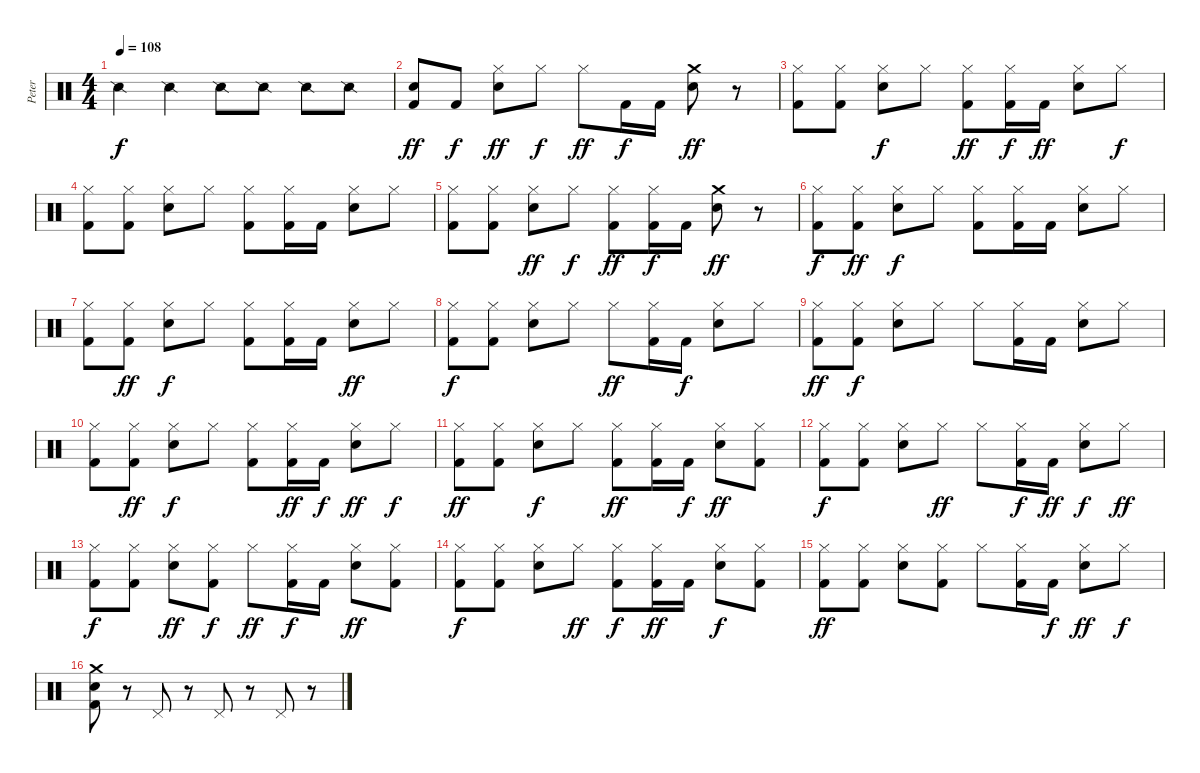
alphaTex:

\track ("Peter" "Peter") {instrument percussion}
\staff {score}
\articulation defaults
\ts (4 4)
\tempo 108
\clef neutral
\ks c "Snare (side stick) 2".4{dy f} "Snare (side stick) 2".4 "Snare (side stick) 2".8 "Snare (side stick) 2".8 "Snare (side stick) 2".8 "Snare (side stick) 2".8
|
("Snare (hit)" "Kick (hit) 2").8{dy ff} "Kick (hit) 2".8{dy f} ("Electric Snare (hit)" "Hi-Hat (closed)").8{dy ff} "Hi-Hat (closed)".8{dy f} "Hi-Hat (closed)".8{dy ff} "Kick (hit) 2".16{dy f} "Kick (hit) 2".16 ("Electric Snare (hit)" "Crash medium (hit)").8{dy ff} r.8 |
("Kick (hit) 2" "Hi-Hat (closed)").8 ("Kick (hit) 2" "Hi-Hat (closed)").8 ("Electric Snare (hit)" "Hi-Hat (closed)").8{dy f} "Hi-Hat (closed)".8 ("Hi-Hat (closed)" "Kick (hit) 2").8{dy ff} ("Kick (hit) 2" "Hi-Hat (closed)").16{dy f} "Kick (hit) 2".16{dy ff} ("Electric Snare (hit)" "Hi-Hat (closed)").8 "Hi-Hat (closed)".8{dy f} |
("Hi-Hat (closed)" "Kick (hit) 2").8 ("Kick (hit) 2" "Hi-Hat (closed)").8 ("Hi-Hat (closed)" "Electric Snare (hit)").8 "Hi-Hat (closed)".8 ("Kick (hit) 2" "Hi-Hat (closed)").8 ("Hi-Hat (closed)" "Kick (hit) 2").16 "Kick (hit) 2".16 ("Hi-Hat (closed)" "Electric Snare (hit)").8 "Hi-Hat (closed)".8 |
("Kick (hit) 2" "Hi-Hat (closed)").8 ("Kick (hit) 2" "Hi-Hat (closed)").8 ("Hi-Hat (closed)" "Electric Snare (hit)").8{dy ff} "Hi-Hat (closed)".8{dy f} ("Hi-Hat (closed)" "Kick (hit) 2").8{dy ff} ("Kick (hit) 2" "Hi-Hat (closed)").16{dy f} "Kick (hit) 2".16 ("Crash medium (hit)" "Electric Snare (hit)").8{dy ff} r.8 |
("Hi-Hat (closed)" "Kick (hit) 2").8{dy f} ("Hi-Hat (closed)" "Kick (hit) 2").8{dy ff} ("Hi-Hat (closed)" "Electric Snare (hit)").8{dy f} "Hi-Hat (closed)".8 ("Hi-Hat (closed)" "Kick (hit) 2").8 ("Hi-Hat (closed)" "Kick (hit) 2").16 "Kick (hit) 2".16 ("Hi-Hat (closed)" "Electric Snare (hit)").8 "Hi-Hat (closed)".8 |
("Kick (hit) 2" "Hi-Hat (closed)").8 ("Hi-Hat (closed)" "Kick (hit) 2").8{dy ff} ("Hi-Hat (closed)" "Electric Snare (hit)").8{dy f} "Hi-Hat (closed)".8 ("Kick (hit) 2" "Hi-Hat (closed)").8 ("Kick (hit) 2" "Hi-Hat (closed)").16 "Kick (hit) 2".16 ("Hi-Hat (closed)" "Electric Snare (hit)").8{dy ff} "Hi-Hat (closed)".8 |
("Kick (hit) 2" "Hi-Hat (closed)").8{dy f} ("Kick (hit) 2" "Hi-Hat (closed)").8 ("Hi-Hat (closed)" "Electric Snare (hit)").8 "Hi-Hat (closed)".8 "Hi-Hat (closed)".8{dy ff} ("Kick (hit) 2" "Hi-Hat (closed)").16 "Kick (hit) 2".16{dy f} ("Electric Snare (hit)" "Hi-Hat (closed)").8 "Hi-Hat (closed)".8 |
("Hi-Hat (closed)" "Kick (hit) 2").8{dy ff} ("Kick (hit) 2" "Hi-Hat (closed)").8{dy f} ("Electric Snare (hit)" "Hi-Hat (closed)").8 "Hi-Hat (closed)".8 "Hi-Hat (closed)".8 ("Kick (hit) 2" "Hi-Hat (closed)").16 "Kick (hit) 2".16 ("Electric Snare (hit)" "Hi-Hat (closed)").8 "Hi-Hat (closed)".8 |
("Kick (hit) 2" "Hi-Hat (closed)").8 ("Hi-Hat (closed)" "Kick (hit) 2").8{dy ff} ("Hi-Hat (closed)" "Electric Snare (hit)").8{dy f} "Hi-Hat (closed)".8 ("Kick (hit) 2" "Hi-Hat (closed)").8 ("Kick (hit) 2" "Hi-Hat (closed)").16{dy ff} "Kick (hit) 2".16{dy f} ("Electric Snare (hit)" "Hi-Hat (closed)").8{dy ff} "Hi-Hat (closed)".8{dy f} |
("Kick (hit) 2" "Hi-Hat (closed)").8{dy ff} ("Kick (hit) 2" "Hi-Hat (closed)").8 ("Electric Snare (hit)" "Hi-Hat (closed)").8{dy f} "Hi-Hat (closed)".8 ("Kick (hit) 2" "Hi-Hat (closed)").8{dy ff} ("Kick (hit) 2" "Hi-Hat (closed)").16 "Kick (hit) 2".16{dy f} ("Hi-Hat (closed)" "Electric Snare (hit)").8{dy ff} ("Kick (hit) 2" "Hi-Hat (closed)").8 |
("Hi-Hat (closed)" "Kick (hit) 2").8{dy f} ("Kick (hit) 2" "Hi-Hat (closed)").8 ("Electric Snare (hit)" "Hi-Hat (closed)").8 "Hi-Hat (closed)".8{dy ff} "Hi-Hat (closed)".8 ("Kick (hit) 2" "Hi-Hat (closed)").16{dy f} "Kick (hit) 2".16{dy ff} ("Electric Snare (hit)" "Hi-Hat (closed)").8{dy f} "Hi-Hat (closed)".8{dy ff} |
("Hi-Hat (closed)" "Kick (hit) 2").8{dy f} ("Kick (hit) 2" "Hi-Hat (closed)").8 ("Hi-Hat (closed)" "Electric Snare (hit)").8{dy ff} ("Kick (hit) 2" "Hi-Hat (closed)").8{dy f} "Hi-Hat (closed)".8{dy ff} ("Kick (hit) 2" "Hi-Hat (closed)").16{dy f} "Kick (hit) 2".16 ("Hi-Hat (closed)" "Electric Snare (hit)").8{dy ff} ("Hi-Hat (closed)" "Kick (hit) 2").8 |
("Kick (hit) 2" "Hi-Hat (closed)").8{dy f} ("Kick (hit) 2" "Hi-Hat (closed)").8 ("Electric Snare (hit)" "Hi-Hat (closed)").8 "Hi-Hat (closed)".8{dy ff} ("Hi-Hat (closed)" "Kick (hit) 2").8{dy f} ("Hi-Hat (closed)" "Kick (hit) 2").16{dy ff} "Kick (hit) 2".16 ("Hi-Hat (closed)" "Electric Snare (hit)").8{dy f} ("Hi-Hat (closed)" "Kick (hit) 2").8 |
("Hi-Hat (closed)" "Kick (hit) 2").8{dy ff} ("Kick (hit) 2" "Hi-Hat (closed)").8 ("Hi-Hat (closed)" "Electric Snare (hit)").8 ("Hi-Hat (closed)" "Kick (hit) 2").8 "Hi-Hat (closed)".8 ("Kick (hit) 2" "Hi-Hat (closed)").16 "Kick (hit) 2".16{dy f} ("Hi-Hat (closed)" "Electric Snare (hit)").8{dy ff} "Hi-Hat (closed)".8{dy f} |
("Electric Snare (hit)" "Kick (hit) 2" "Crash medium (hit)").8 r.8 "Pedal Hi-Hat (hit)".8 r.8 "Pedal Hi-Hat (hit)".8 r.8 "Pedal Hi-Hat (hit)".8 r.8
